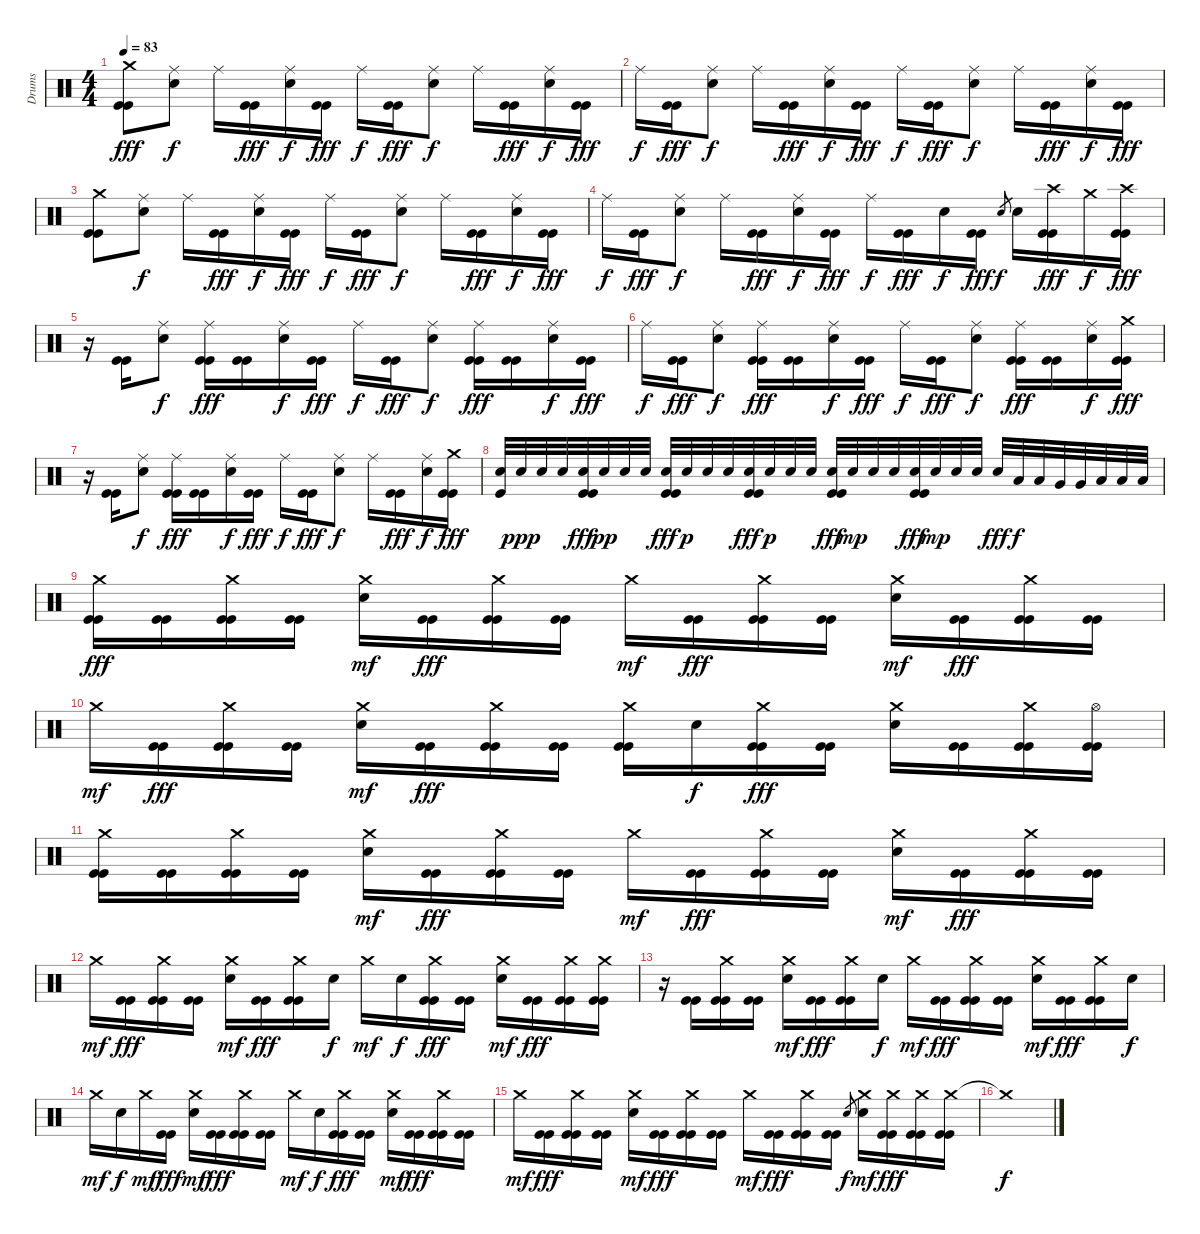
\track ("Drums" "Drums") {instrument percussion}
\staff {score}
\articulation defaults
\ts (4 4)
\tempo 83
\clef neutral
\ks c
("Crash medium (hit)" "Kick (hit)" "Kick (hit)").8{dy fff} ("Ride (middle)" "Snare (hit) 2").8{dy f} "Ride (middle)".16 ("Kick (hit)" "Kick (hit)").16{dy fff} ("Ride (middle)" "Snare (hit) 2").16{dy f} ("Kick (hit)" "Kick (hit)").16{dy fff} "Ride (middle)".16{dy f} ("Kick (hit)" "Kick (hit)").16{dy fff} ("Ride (middle)" "Snare (hit) 2").8{dy f} "Ride (middle)".16 ("Kick (hit)" "Kick (hit)").16{dy fff} ("Ride (middle)" "Snare (hit) 2").16{dy f} ("Kick (hit)" "Kick (hit)").16{dy fff} |
"Ride (middle)".16{dy f} ("Kick (hit)" "Kick (hit)").16{dy fff} ("Ride (middle)" "Snare (hit) 2").8{dy f} "Ride (middle)".16 ("Kick (hit)" "Kick (hit)").16{dy fff} ("Ride (middle)" "Snare (hit) 2").16{dy f} ("Kick (hit)" "Kick (hit)").16{dy fff} "Ride (middle)".16{dy f} ("Kick (hit)" "Kick (hit)").16{dy fff} ("Ride (middle)" "Snare (hit) 2").8{dy f} "Ride (middle)".16 ("Kick (hit)" "Kick (hit)").16{dy fff} ("Ride (middle)" "Snare (hit) 2").16{dy f} ("Kick (hit)" "Kick (hit)").16{dy fff} |
("Crash medium (hit)" "Kick (hit)" "Kick (hit)").8 ("Ride (middle)" "Snare (hit) 2").8{dy f} "Ride (middle)".16 ("Kick (hit)" "Kick (hit)").16{dy fff} ("Ride (middle)" "Snare (hit) 2").16{dy f} ("Kick (hit)" "Kick (hit)").16{dy fff} "Ride (middle)".16{dy f} ("Kick (hit)" "Kick (hit)").16{dy fff} ("Ride (middle)" "Snare (hit) 2").8{dy f} "Ride (middle)".16 ("Kick (hit)" "Kick (hit)").16{dy fff} ("Ride (middle)" "Snare (hit) 2").16{dy f} ("Kick (hit)" "Kick (hit)").16{dy fff} |
"Ride (middle)".16{dy f} ("Kick (hit)" "Kick (hit)").16{dy fff} ("Ride (middle)" "Snare (hit) 2").8{dy f} "Ride (middle)".16 ("Kick (hit)" "Kick (hit)").16{dy fff} ("Ride (middle)" "Snare (hit) 2").16{dy f} ("Kick (hit)" "Kick (hit)").16{dy fff} "Ride (middle)".16{dy f} ("Kick (hit)" "Kick (hit)").16{dy fff} "Snare (hit) 2".16{dy f} ("Kick (hit)" "Kick (hit)").16{dy fff} "Snare (hit) 2".8{gr dy f} "Snare (hit) 2".16 ("Crash high (hit)" "Kick (hit)" "Kick (hit)").16{dy fff} "Crash medium (hit)".16{dy f} ("Crash high (hit)" "Kick (hit)" "Kick (hit)").16{dy fff} |
r.16 ("Kick (hit)" "Kick (hit)").16 ("Ride (middle)" "Snare (hit) 2").8{dy f} ("Ride (middle)" "Kick (hit)" "Kick (hit)").16{dy fff} ("Kick (hit)" "Kick (hit)").16 ("Ride (middle)" "Snare (hit) 2").16{dy f} ("Kick (hit)" "Kick (hit)").16{dy fff} "Ride (middle)".16{dy f} ("Kick (hit)" "Kick (hit)").16{dy fff} ("Ride (middle)" "Snare (hit) 2").8{dy f} ("Ride (middle)" "Kick (hit)" "Kick (hit)").16{dy fff} ("Kick (hit)" "Kick (hit)").16 ("Ride (middle)" "Snare (hit) 2").16{dy f} ("Kick (hit)" "Kick (hit)").16{dy fff} |
"Ride (middle)".16{dy f} ("Kick (hit)" "Kick (hit)").16{dy fff} ("Ride (middle)" "Snare (hit) 2").8{dy f} ("Ride (middle)" "Kick (hit)" "Kick (hit)").16{dy fff} ("Kick (hit)" "Kick (hit)").16 ("Ride (middle)" "Snare (hit) 2").16{dy f} ("Kick (hit)" "Kick (hit)").16{dy fff} "Ride (middle)".16{dy f} ("Kick (hit)" "Kick (hit)").16{dy fff} ("Ride (middle)" "Snare (hit) 2").8{dy f} ("Ride (middle)" "Kick (hit)" "Kick (hit)").16{dy fff} ("Kick (hit)" "Kick (hit)").16 ("Ride (middle)" "Snare (hit) 2").16{dy f} ("Crash medium (hit)" "Kick (hit)" "Kick (hit)").16{dy fff} |
r.16 ("Kick (hit)" "Kick (hit)").16 ("Ride (middle)" "Snare (hit) 2").8{dy f} ("Ride (middle)" "Kick (hit)" "Kick (hit)").16{dy fff} ("Kick (hit)" "Kick (hit)").16 ("Ride (middle)" "Snare (hit) 2").16{dy f} ("Kick (hit)" "Kick (hit)").16{dy fff} "Ride (middle)".16{dy f} ("Kick (hit)" "Kick (hit)").16{dy fff} ("Ride (middle)" "Snare (hit) 2").8{dy f} "Ride (middle)".16 ("Kick (hit)" "Kick (hit)").16{dy fff} ("Ride (middle)" "Snare (hit) 2").16{dy f} ("Crash medium (hit)" "Kick (hit)" "Kick (hit)").16{dy fff} |
("Snare (hit) 2" "Kick (hit)").32 "Snare (hit) 2".32{dy ppp} "Snare (hit) 2".32 "Snare (hit) 2".32 ("Snare (hit) 2" "Kick (hit)" "Kick (hit)").32{dy fff} "Snare (hit) 2".32{dy pp} "Snare (hit) 2".32 "Snare (hit) 2".32 ("Snare (hit) 2" "Kick (hit)" "Kick (hit)").32{dy fff} "Snare (hit) 2".32{dy p} "Snare (hit) 2".32 "Snare (hit) 2".32 ("Snare (hit) 2" "Kick (hit)" "Kick (hit)").32{dy fff} "Snare (hit) 2".32{dy p} "Snare (hit) 2".32 "Snare (hit) 2".32 ("Snare (hit) 2" "Kick (hit)" "Kick (hit)").32{dy fff} "Snare (hit) 2".32{dy mp} "Snare (hit) 2".32 "Snare (hit) 2".32 ("Snare (hit) 2" "Kick (hit)" "Kick (hit)").32{dy fff} "Snare (hit) 2".32{dy mp} "Snare (hit) 2".32 "Snare (hit) 2".32 "Snare (hit) 2".32{dy fff} "Low Tom (hit)".32{dy f} "Low Tom (hit)".32 "Very Low Tom (hit)".32 "Very Low Tom (hit)".32 "Low Floor Tom (hit)".32 "Low Floor Tom (hit)".32 "Low Floor Tom (hit)".32 |
("Crash medium (hit)" "Kick (hit)" "Kick (hit)").16{dy fff} ("Kick (hit)" "Kick (hit)").16 ("Crash medium (hit)" "Kick (hit)" "Kick (hit)").16 ("Kick (hit)" "Kick (hit)").16 ("Crash medium (hit)" "Snare (hit) 2").16{dy mf} ("Kick (hit)" "Kick (hit)").16{dy fff} ("Crash medium (hit)" "Kick (hit)" "Kick (hit)").16 ("Kick (hit)" "Kick (hit)").16 "Crash medium (hit)".16{dy mf} ("Kick (hit)" "Kick (hit)").16{dy fff} ("Crash medium (hit)" "Kick (hit)" "Kick (hit)").16 ("Kick (hit)" "Kick (hit)").16 ("Crash medium (hit)" "Snare (hit) 2").16{dy mf} ("Kick (hit)" "Kick (hit)").16{dy fff} ("Crash medium (hit)" "Kick (hit)" "Kick (hit)").16 ("Kick (hit)" "Kick (hit)").16 |
"Crash medium (hit)".16{dy mf} ("Kick (hit)" "Kick (hit)").16{dy fff} ("Crash medium (hit)" "Kick (hit)" "Kick (hit)").16 ("Kick (hit)" "Kick (hit)").16 ("Crash medium (hit)" "Snare (hit) 2").16{dy mf} ("Kick (hit)" "Kick (hit)").16{dy fff} ("Crash medium (hit)" "Kick (hit)" "Kick (hit)").16 ("Kick (hit)" "Kick (hit)").16 ("Crash medium (hit)" "Kick (hit)" "Kick (hit)").16 "Snare (hit) 2".16{dy f} ("Crash medium (hit)" "Kick (hit)" "Kick (hit)").16{dy fff} ("Kick (hit)" "Kick (hit)").16 ("Crash medium (hit)" "Snare (hit) 2").16 ("Kick (hit)" "Kick (hit)").16 ("Crash medium (hit)" "Kick (hit)" "Kick (hit)").16 ("Hi-Hat (open)" "Kick (hit)" "Kick (hit)").16 |
("Crash medium (hit)" "Kick (hit)" "Kick (hit)").16 ("Kick (hit)" "Kick (hit)").16 ("Crash medium (hit)" "Kick (hit)" "Kick (hit)").16 ("Kick (hit)" "Kick (hit)").16 ("Crash medium (hit)" "Snare (hit) 2").16{dy mf} ("Kick (hit)" "Kick (hit)").16{dy fff} ("Crash medium (hit)" "Kick (hit)" "Kick (hit)").16 ("Kick (hit)" "Kick (hit)").16 "Crash medium (hit)".16{dy mf} ("Kick (hit)" "Kick (hit)").16{dy fff} ("Crash medium (hit)" "Kick (hit)" "Kick (hit)").16 ("Kick (hit)" "Kick (hit)").16 ("Crash medium (hit)" "Snare (hit) 2").16{dy mf} ("Kick (hit)" "Kick (hit)").16{dy fff} ("Crash medium (hit)" "Kick (hit)" "Kick (hit)").16 ("Kick (hit)" "Kick (hit)").16 |
"Crash medium (hit)".16{dy mf} ("Kick (hit)" "Kick (hit)").16{dy fff} ("Crash medium (hit)" "Kick (hit)" "Kick (hit)").16 ("Kick (hit)" "Kick (hit)").16 ("Crash medium (hit)" "Snare (hit) 2").16{dy mf} ("Kick (hit)" "Kick (hit)").16{dy fff} ("Crash medium (hit)" "Kick (hit)" "Kick (hit)").16 "Snare (hit) 2".16{dy f} "Crash medium (hit)".16{dy mf} "Snare (hit) 2".16{dy f} ("Crash medium (hit)" "Kick (hit)" "Kick (hit)").16{dy fff} ("Kick (hit)" "Kick (hit)").16 ("Crash medium (hit)" "Snare (hit) 2").16{dy mf} ("Kick (hit)" "Kick (hit)").16{dy fff} ("Crash medium (hit)" "Kick (hit)" "Kick (hit)").16 ("Crash medium (hit)" "Kick (hit)" "Kick (hit)").16 |
r.16 ("Kick (hit)" "Kick (hit)").16 ("Crash medium (hit)" "Kick (hit)" "Kick (hit)").16 ("Kick (hit)" "Kick (hit)").16 ("Crash medium (hit)" "Snare (hit) 2").16{dy mf} ("Kick (hit)" "Kick (hit)").16{dy fff} ("Crash medium (hit)" "Kick (hit)" "Kick (hit)").16 "Snare (hit) 2".16{dy f} "Crash medium (hit)".16{dy mf} ("Kick (hit)" "Kick (hit)").16{dy fff} ("Crash medium (hit)" "Kick (hit)" "Kick (hit)").16 ("Kick (hit)" "Kick (hit)").16 ("Crash medium (hit)" "Snare (hit) 2").16{dy mf} ("Kick (hit)" "Kick (hit)").16{dy fff} ("Crash medium (hit)" "Kick (hit)" "Kick (hit)").16 "Snare (hit) 2".16{dy f} |
"Crash medium (hit)".16{dy mf} "Snare (hit) 2".16{dy f} "Crash medium (hit)".16{dy mf} ("Kick (hit)" "Kick (hit)").16{dy fff} ("Crash medium (hit)" "Snare (hit) 2").16{dy mf} ("Kick (hit)" "Kick (hit)").16{dy fff} ("Crash medium (hit)" "Kick (hit)" "Kick (hit)").16 ("Kick (hit)" "Kick (hit)").16 "Crash medium (hit)".16{dy mf} "Snare (hit) 2".16{dy f} ("Crash medium (hit)" "Kick (hit)" "Kick (hit)").16{dy fff} ("Kick (hit)" "Kick (hit)").16 ("Crash medium (hit)" "Snare (hit) 2").16{dy mf} ("Kick (hit)" "Kick (hit)").16{dy fff} ("Crash medium (hit)" "Kick (hit)" "Kick (hit)").16 ("Kick (hit)" "Kick (hit)").16 |
"Crash medium (hit)".16{dy mf} ("Kick (hit)" "Kick (hit)").16{dy fff} ("Crash medium (hit)" "Kick (hit)" "Kick (hit)").16 ("Kick (hit)" "Kick (hit)").16 ("Crash medium (hit)" "Snare (hit) 2").16{dy mf} ("Kick (hit)" "Kick (hit)").16{dy fff} ("Crash medium (hit)" "Kick (hit)" "Kick (hit)").16 ("Kick (hit)" "Kick (hit)").16 "Crash medium (hit)".16{dy mf} ("Kick (hit)" "Kick (hit)").16{dy fff} ("Crash medium (hit)" "Kick (hit)" "Kick (hit)").16 ("Kick (hit)" "Kick (hit)").16 "Snare (hit) 2".8{gr dy f} ("Crash medium (hit)" "Snare (hit) 2").16{dy mf} ("Crash medium (hit)" "Kick (hit)" "Kick (hit)").16{dy fff} ("Crash medium (hit)" "Kick (hit)" "Kick (hit)").16 ("Crash medium (hit)" "Kick (hit)" "Kick (hit)").16 |
"Crash medium (hit)"{t}.1{dy f}
